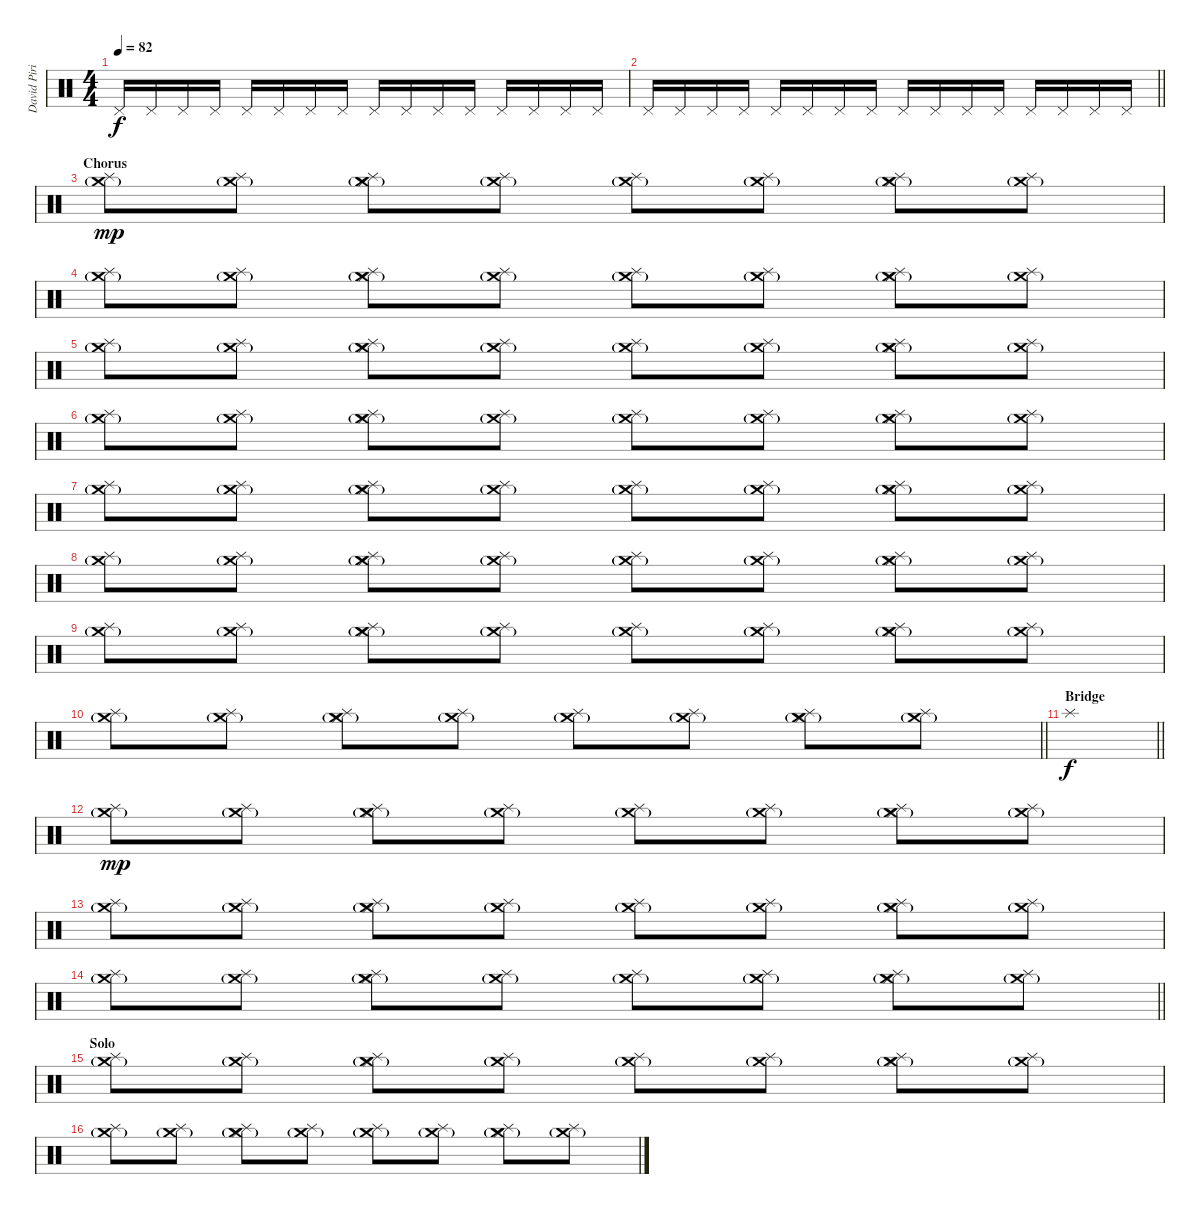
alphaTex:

\track ("David Piribauer (Drums)" "David Piri") {instrument percussion}
\staff {score}
\articulation defaults
\ts (4 4)
\tempo 82
\clef neutral
\ks c "Pedal Hi-Hat (hit)".16{dy f} "Pedal Hi-Hat (hit)".16 "Pedal Hi-Hat (hit)".16 "Pedal Hi-Hat (hit)".16 "Pedal Hi-Hat (hit)".16 "Pedal Hi-Hat (hit)".16 "Pedal Hi-Hat (hit)".16 "Pedal Hi-Hat (hit)".16 "Pedal Hi-Hat (hit)".16 "Pedal Hi-Hat (hit)".16 "Pedal Hi-Hat (hit)".16 "Pedal Hi-Hat (hit)".16 "Pedal Hi-Hat (hit)".16 "Pedal Hi-Hat (hit)".16 "Pedal Hi-Hat (hit)".16 "Pedal Hi-Hat (hit)".16
|
\barLineRight lightlight "Pedal Hi-Hat (hit)".16 "Pedal Hi-Hat (hit)".16 "Pedal Hi-Hat (hit)".16 "Pedal Hi-Hat (hit)".16 "Pedal Hi-Hat (hit)".16 "Pedal Hi-Hat (hit)".16 "Pedal Hi-Hat (hit)".16 "Pedal Hi-Hat (hit)".16 "Pedal Hi-Hat (hit)".16 "Pedal Hi-Hat (hit)".16 "Pedal Hi-Hat (hit)".16 "Pedal Hi-Hat (hit)".16 "Pedal Hi-Hat (hit)".16 "Pedal Hi-Hat (hit)".16 "Pedal Hi-Hat (hit)".16 "Pedal Hi-Hat (hit)".16
|
\section ("" "Chorus")
("Crash medium (hit)"{g} "Splash (hit)").8{dy mp} ("Crash medium (hit)"{g} "Splash (hit)").8 ("Crash medium (hit)"{g} "Splash (hit)" "Hi-Hat (closed)").8 ("Crash medium (hit)"{g} "Splash (hit)").8 ("Crash medium (hit)"{g} "Splash (hit)").8 ("Crash medium (hit)"{g} "Splash (hit)").8 ("Crash medium (hit)"{g} "Splash (hit)" "Hi-Hat (closed)").8 ("Crash medium (hit)"{g} "Splash (hit)").8 |
("Crash medium (hit)"{g} "Splash (hit)").8 ("Crash medium (hit)"{g} "Splash (hit)").8 ("Crash medium (hit)"{g} "Splash (hit)" "Hi-Hat (closed)").8 ("Crash medium (hit)"{g} "Splash (hit)").8 ("Crash medium (hit)"{g} "Splash (hit)").8 ("Crash medium (hit)"{g} "Splash (hit)").8 ("Crash medium (hit)"{g} "Splash (hit)" "Hi-Hat (closed)").8 ("Crash medium (hit)"{g} "Splash (hit)").8 |
("Crash medium (hit)"{g} "Splash (hit)").8 ("Crash medium (hit)"{g} "Splash (hit)").8 ("Crash medium (hit)"{g} "Splash (hit)" "Hi-Hat (closed)").8 ("Crash medium (hit)"{g} "Splash (hit)").8 ("Crash medium (hit)"{g} "Splash (hit)").8 ("Crash medium (hit)"{g} "Splash (hit)").8 ("Crash medium (hit)"{g} "Splash (hit)" "Hi-Hat (closed)").8 ("Crash medium (hit)"{g} "Splash (hit)").8 |
("Crash medium (hit)"{g} "Splash (hit)").8 ("Crash medium (hit)"{g} "Splash (hit)").8 ("Crash medium (hit)"{g} "Splash (hit)" "Hi-Hat (closed)").8 ("Crash medium (hit)"{g} "Splash (hit)").8 ("Crash medium (hit)"{g} "Splash (hit)").8 ("Crash medium (hit)"{g} "Splash (hit)").8 ("Crash medium (hit)"{g} "Splash (hit)" "Hi-Hat (closed)").8 ("Crash medium (hit)"{g} "Splash (hit)").8 |
("Crash medium (hit)"{g} "Splash (hit)").8 ("Crash medium (hit)"{g} "Splash (hit)").8 ("Crash medium (hit)"{g} "Splash (hit)" "Hi-Hat (closed)").8 ("Crash medium (hit)"{g} "Splash (hit)").8 ("Crash medium (hit)"{g} "Splash (hit)").8 ("Crash medium (hit)"{g} "Splash (hit)").8 ("Crash medium (hit)"{g} "Splash (hit)" "Hi-Hat (closed)").8 ("Crash medium (hit)"{g} "Splash (hit)").8 |
("Crash medium (hit)"{g} "Splash (hit)").8 ("Crash medium (hit)"{g} "Splash (hit)").8 ("Crash medium (hit)"{g} "Splash (hit)" "Hi-Hat (closed)").8 ("Crash medium (hit)"{g} "Splash (hit)").8 ("Crash medium (hit)"{g} "Splash (hit)").8 ("Crash medium (hit)"{g} "Splash (hit)").8 ("Crash medium (hit)"{g} "Splash (hit)" "Hi-Hat (closed)").8 ("Crash medium (hit)"{g} "Splash (hit)").8 |
("Crash medium (hit)"{g} "Splash (hit)").8 ("Crash medium (hit)"{g} "Splash (hit)").8 ("Crash medium (hit)"{g} "Splash (hit)" "Hi-Hat (closed)").8 ("Crash medium (hit)"{g} "Splash (hit)").8 ("Crash medium (hit)"{g} "Splash (hit)").8 ("Crash medium (hit)"{g} "Splash (hit)").8 ("Crash medium (hit)"{g} "Splash (hit)" "Hi-Hat (closed)").8 ("Crash medium (hit)"{g} "Splash (hit)").8 |
\barLineRight lightlight
("Crash medium (hit)"{g} "Splash (hit)").8 ("Crash medium (hit)"{g} "Splash (hit)").8 ("Crash medium (hit)"{g} "Splash (hit)" "Hi-Hat (closed)").8 ("Crash medium (hit)"{g} "Splash (hit)").8 ("Crash medium (hit)"{g} "Splash (hit)").8 ("Crash medium (hit)"{g} "Splash (hit)").8 ("Crash medium (hit)"{g} "Splash (hit)" "Hi-Hat (closed)").8 ("Crash medium (hit)"{g} "Splash (hit)").8 |
\section ("" "Bridge")
\barLineRight lightlight "Splash (hit)".1{dy f}
|
("Crash medium (hit)"{g} "Splash (hit)").8{dy mp} ("Crash medium (hit)"{g} "Splash (hit)").8 ("Crash medium (hit)"{g} "Splash (hit)" "Hi-Hat (closed)").8 ("Crash medium (hit)"{g} "Splash (hit)").8 ("Crash medium (hit)"{g} "Splash (hit)").8 ("Crash medium (hit)"{g} "Splash (hit)").8 ("Crash medium (hit)"{g} "Splash (hit)" "Hi-Hat (closed)").8 ("Crash medium (hit)"{g} "Splash (hit)").8 |
("Crash medium (hit)"{g} "Splash (hit)").8 ("Crash medium (hit)"{g} "Splash (hit)").8 ("Crash medium (hit)"{g} "Splash (hit)" "Hi-Hat (closed)").8 ("Crash medium (hit)"{g} "Splash (hit)").8 ("Crash medium (hit)"{g} "Splash (hit)").8 ("Crash medium (hit)"{g} "Splash (hit)").8 ("Crash medium (hit)"{g} "Splash (hit)" "Hi-Hat (closed)").8 ("Crash medium (hit)"{g} "Splash (hit)").8 |
\barLineRight lightlight
("Crash medium (hit)"{g} "Splash (hit)").8 ("Crash medium (hit)"{g} "Splash (hit)").8 ("Crash medium (hit)"{g} "Splash (hit)" "Hi-Hat (closed)").8 ("Crash medium (hit)"{g} "Splash (hit)").8 ("Crash medium (hit)"{g} "Splash (hit)").8 ("Crash medium (hit)"{g} "Splash (hit)").8 ("Crash medium (hit)"{g} "Splash (hit)" "Hi-Hat (closed)").8 ("Crash medium (hit)"{g} "Splash (hit)").8 |
\section ("" "Solo")
("Crash medium (hit)"{g} "Splash (hit)").8 ("Crash medium (hit)"{g} "Splash (hit)").8 ("Crash medium (hit)"{g} "Splash (hit)" "Hi-Hat (closed)").8 ("Crash medium (hit)"{g} "Splash (hit)").8 ("Crash medium (hit)"{g} "Splash (hit)").8 ("Crash medium (hit)"{g} "Splash (hit)").8 ("Crash medium (hit)"{g} "Splash (hit)" "Hi-Hat (closed)").8 ("Crash medium (hit)"{g} "Splash (hit)").8 |
("Crash medium (hit)"{g} "Splash (hit)").8 ("Crash medium (hit)"{g} "Splash (hit)").8 ("Crash medium (hit)"{g} "Splash (hit)" "Hi-Hat (closed)").8 ("Crash medium (hit)"{g} "Splash (hit)").8 ("Crash medium (hit)"{g} "Splash (hit)").8 ("Crash medium (hit)"{g} "Splash (hit)").8 ("Crash medium (hit)"{g} "Splash (hit)" "Hi-Hat (closed)").8 ("Crash medium (hit)"{g} "Splash (hit)").8
